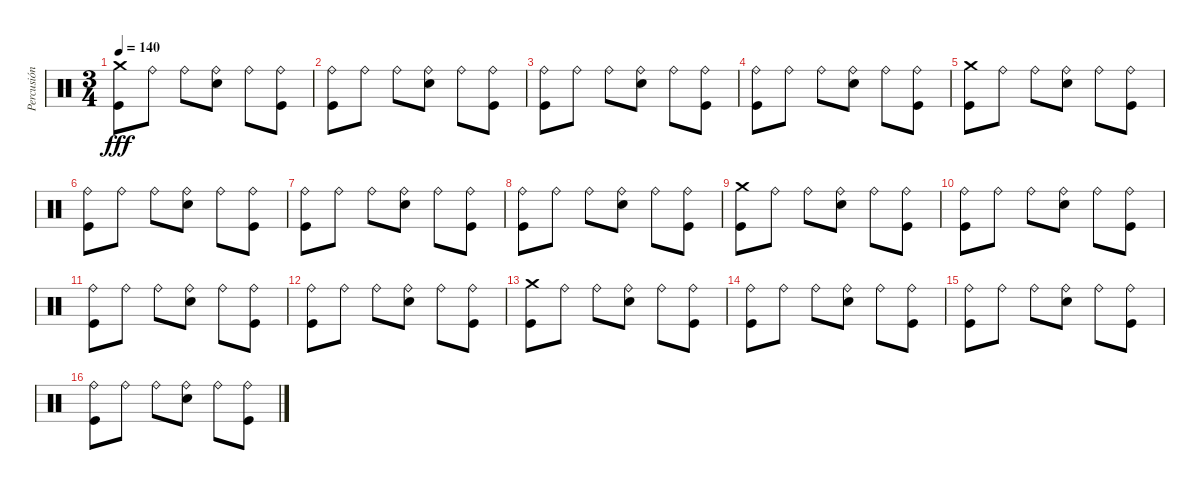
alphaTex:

\track ("Percusión" "Percusión") {instrument percussion}
\staff {score}
\articulation defaults
\ts (3 4)
\tempo 140
\clef neutral
\ks c
("Crash medium (hit)" "Kick (hit)").8{dy fff} "Ride (bell)".8 "Ride (bell)".8 ("Ride (bell)" "Snare (hit) 2").8 "Ride (bell)".8 ("Ride (bell)" "Kick (hit)").8 |
("Ride (bell)" "Kick (hit)").8 "Ride (bell)".8 "Ride (bell)".8 ("Ride (bell)" "Snare (hit) 2").8 "Ride (bell)".8 ("Ride (bell)" "Kick (hit)").8 |
("Ride (bell)" "Kick (hit)").8 "Ride (bell)".8 "Ride (bell)".8 ("Ride (bell)" "Snare (hit) 2").8 "Ride (bell)".8 ("Ride (bell)" "Kick (hit)").8 |
("Ride (bell)" "Kick (hit)").8 "Ride (bell)".8 "Ride (bell)".8 ("Ride (bell)" "Snare (hit) 2").8 "Ride (bell)".8 ("Ride (bell)" "Kick (hit)").8 |
("Crash medium (hit)" "Kick (hit)").8 "Ride (bell)".8 "Ride (bell)".8 ("Ride (bell)" "Snare (hit) 2").8 "Ride (bell)".8 ("Ride (bell)" "Kick (hit)").8 |
("Ride (bell)" "Kick (hit)").8 "Ride (bell)".8 "Ride (bell)".8 ("Ride (bell)" "Snare (hit) 2").8 "Ride (bell)".8 ("Ride (bell)" "Kick (hit)").8 |
("Ride (bell)" "Kick (hit)").8 "Ride (bell)".8 "Ride (bell)".8 ("Ride (bell)" "Snare (hit) 2").8 "Ride (bell)".8 ("Ride (bell)" "Kick (hit)").8 |
("Ride (bell)" "Kick (hit)").8 "Ride (bell)".8 "Ride (bell)".8 ("Ride (bell)" "Snare (hit) 2").8 "Ride (bell)".8 ("Ride (bell)" "Kick (hit)").8 |
("Crash medium (hit)" "Kick (hit)").8 "Ride (bell)".8 "Ride (bell)".8 ("Ride (bell)" "Snare (hit) 2").8 "Ride (bell)".8 ("Ride (bell)" "Kick (hit)").8 |
("Ride (bell)" "Kick (hit)").8 "Ride (bell)".8 "Ride (bell)".8 ("Ride (bell)" "Snare (hit) 2").8 "Ride (bell)".8 ("Ride (bell)" "Kick (hit)").8 |
("Ride (bell)" "Kick (hit)").8 "Ride (bell)".8 "Ride (bell)".8 ("Ride (bell)" "Snare (hit) 2").8 "Ride (bell)".8 ("Ride (bell)" "Kick (hit)").8 |
("Ride (bell)" "Kick (hit)").8 "Ride (bell)".8 "Ride (bell)".8 ("Ride (bell)" "Snare (hit) 2").8 "Ride (bell)".8 ("Ride (bell)" "Kick (hit)").8 |
("Crash medium (hit)" "Kick (hit)").8 "Ride (bell)".8 "Ride (bell)".8 ("Ride (bell)" "Snare (hit) 2").8 "Ride (bell)".8 ("Ride (bell)" "Kick (hit)").8 |
("Ride (bell)" "Kick (hit)").8 "Ride (bell)".8 "Ride (bell)".8 ("Ride (bell)" "Snare (hit) 2").8 "Ride (bell)".8 ("Ride (bell)" "Kick (hit)").8 |
("Ride (bell)" "Kick (hit)").8 "Ride (bell)".8 "Ride (bell)".8 ("Ride (bell)" "Snare (hit) 2").8 "Ride (bell)".8 ("Ride (bell)" "Kick (hit)").8 |
("Ride (bell)" "Kick (hit)").8 "Ride (bell)".8 "Ride (bell)".8 ("Ride (bell)" "Snare (hit) 2").8 "Ride (bell)".8 ("Ride (bell)" "Kick (hit)").8
